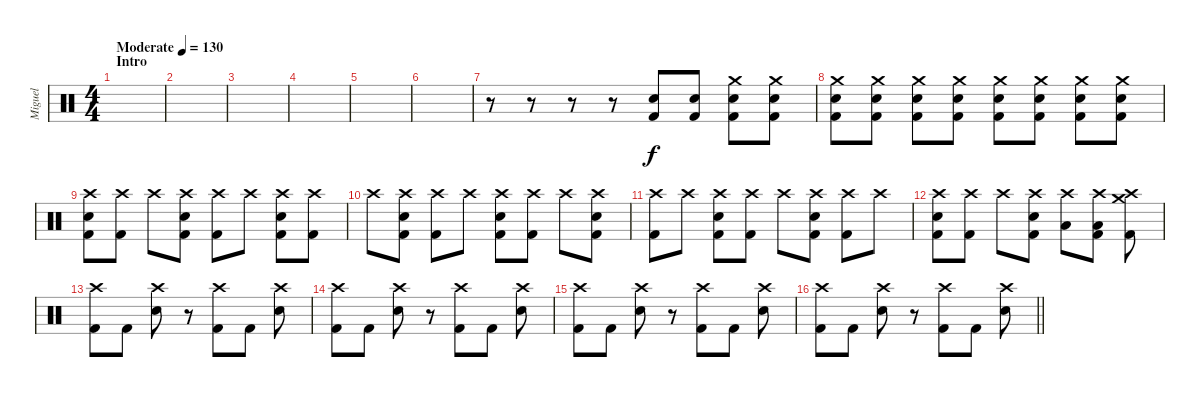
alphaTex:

\track ("Miguel" "Miguel") {instrument percussion}
\staff {score}
\articulation defaults
\ts (4 4)
\section ("" "Intro")
\tempo (130 "Moderate")
\clef neutral
\ks c
|
|
|
|
|
|
r.8 r.8 r.8 r.8 ("Snare (hit) 2" "Kick (hit) 2").8 ("Snare (hit) 2" "Kick (hit) 2").8 ("Crash medium (hit)" "Snare (hit) 2" "Kick (hit) 2").8 ("Crash medium (hit)" "Snare (hit) 2" "Kick (hit) 2").8 |
("Crash medium (hit)" "Snare (hit) 2" "Kick (hit) 2").8 ("Crash medium (hit)" "Snare (hit) 2" "Kick (hit) 2").8 ("Crash medium (hit)" "Snare (hit) 2" "Kick (hit) 2").8 ("Crash medium (hit)" "Snare (hit) 2" "Kick (hit) 2").8 ("Crash medium (hit)" "Snare (hit) 2" "Kick (hit) 2").8 ("Crash medium (hit)" "Snare (hit) 2" "Kick (hit) 2").8 ("Crash medium (hit)" "Snare (hit) 2" "Kick (hit) 2").8 ("Crash medium (hit)" "Snare (hit) 2" "Kick (hit) 2").8 |
("Crash high (hit)" "Snare (hit) 2" "Kick (hit) 2").8 ("Crash high (hit)" "Kick (hit) 2").8 "Crash high (hit)".8 ("Crash high (hit)" "Snare (hit) 2" "Kick (hit) 2").8 ("Crash high (hit)" "Kick (hit) 2").8 "Crash high (hit)".8 ("Crash high (hit)" "Snare (hit) 2" "Kick (hit) 2").8 ("Crash high (hit)" "Kick (hit) 2").8 |
"Crash high (hit)".8 ("Crash high (hit)" "Snare (hit) 2" "Kick (hit) 2").8 ("Crash high (hit)" "Kick (hit) 2").8 "Crash high (hit)".8 ("Crash high (hit)" "Snare (hit) 2" "Kick (hit) 2").8 ("Crash high (hit)" "Kick (hit) 2").8 "Crash high (hit)".8 ("Crash high (hit)" "Snare (hit) 2" "Kick (hit) 2").8 |
("Crash high (hit)" "Kick (hit) 2").8 "Crash high (hit)".8 ("Crash high (hit)" "Snare (hit) 2" "Kick (hit) 2").8 ("Crash high (hit)" "Kick (hit) 2").8 "Crash high (hit)".8 ("Crash high (hit)" "Snare (hit) 2" "Kick (hit) 2").8 ("Crash high (hit)" "Kick (hit) 2").8 "Crash high (hit)".8 |
("Crash high (hit)" "Snare (hit) 2" "Kick (hit) 2").8 ("Crash high (hit)" "Kick (hit) 2").8 "Crash high (hit)".8 ("Crash high (hit)" "Snare (hit) 2" "Kick (hit) 2").8 ("Crash high (hit)" "Low Tom (hit)").8 ("Crash high (hit)" "Low Tom (hit)" "Kick (hit) 2").8 ("Crash medium (hit)" "Crash high (hit)" "Kick (hit) 2").8 |
("Crash high (hit)" "Kick (hit) 2").8 "Kick (hit) 2".8 ("Crash high (hit)" "Snare (hit) 2").8 r.8 ("Crash high (hit)" "Kick (hit) 2").8 "Kick (hit) 2".8 ("Crash high (hit)" "Snare (hit) 2").8 |
("Crash high (hit)" "Kick (hit) 2").8 "Kick (hit) 2".8 ("Crash high (hit)" "Snare (hit) 2").8 r.8 ("Crash high (hit)" "Kick (hit) 2").8 "Kick (hit) 2".8 ("Crash high (hit)" "Snare (hit) 2").8 |
("Crash high (hit)" "Kick (hit) 2").8 "Kick (hit) 2".8 ("Crash high (hit)" "Snare (hit) 2").8 r.8 ("Crash high (hit)" "Kick (hit) 2").8 "Kick (hit) 2".8 ("Crash high (hit)" "Snare (hit) 2").8 |
\barLineRight lightlight
("Crash high (hit)" "Kick (hit) 2").8 "Kick (hit) 2".8 ("Crash high (hit)" "Snare (hit) 2").8 r.8 ("Crash high (hit)" "Kick (hit) 2").8 "Kick (hit) 2".8 ("Crash high (hit)" "Snare (hit) 2").8
